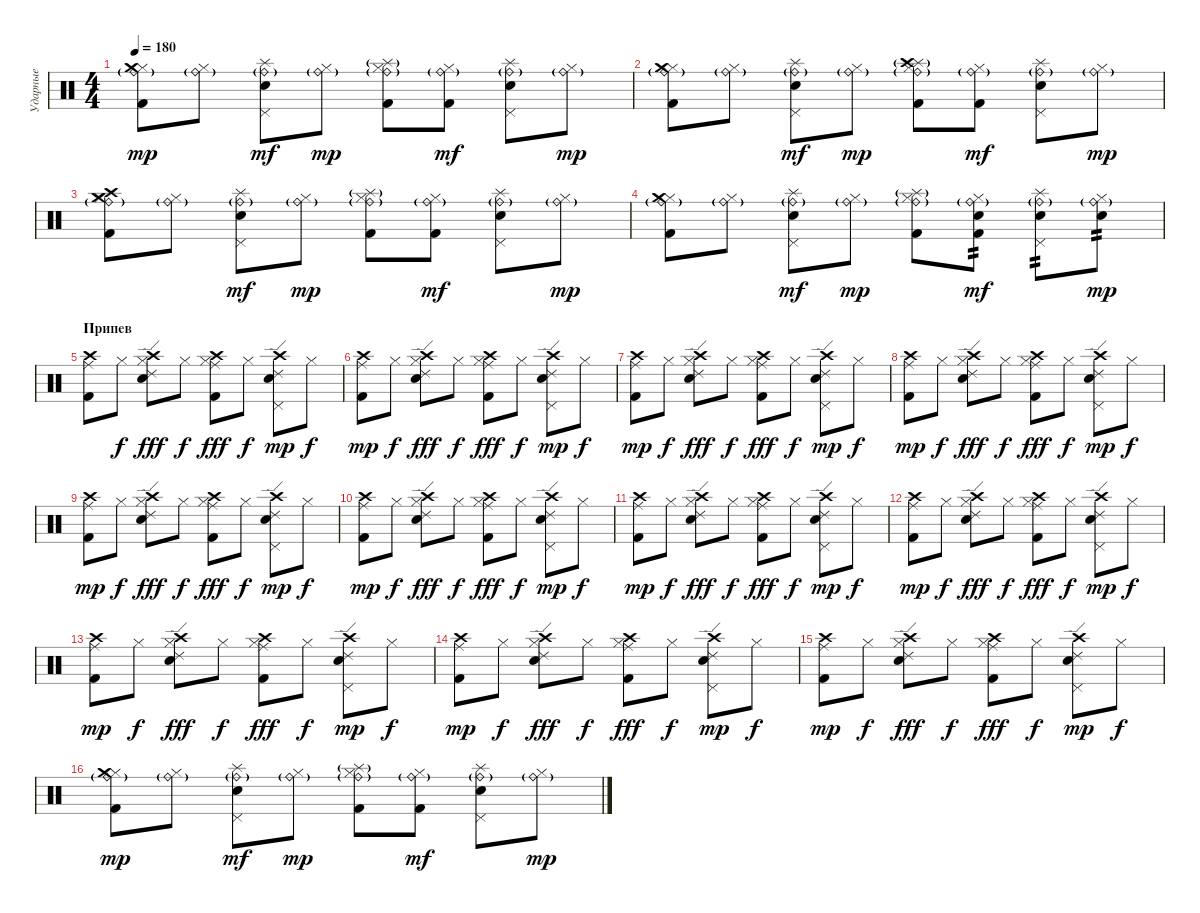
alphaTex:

\track ("Ударные" "Ударные") {instrument percussion}
\staff {score}
\articulation defaults
\ts (4 4)
\tempo 180
\clef neutral
\ks c
("Ride (bell)"{g} "Hi-Hat (closed)" "Kick (hit) 2" "Crash medium (hit)").8{dy mp} ("Ride (bell)"{g} "Hi-Hat (closed)").8 ("Ride (bell)"{g} "Snare (hit) 2" "Pedal Hi-Hat (hit)" "Splash (hit)").8{dy mf} ("Ride (bell)"{g} "Hi-Hat (closed)").8{dy mp} ("Ride (bell)"{g} "Hi-Hat (closed)" "Kick (hit) 2" "Splash (hit)"{g}).8 ("Ride (bell)"{g} "Hi-Hat (closed)" "Kick (hit) 2").8{dy mf} ("Ride (bell)"{g} "Pedal Hi-Hat (hit)" "Snare (hit) 2" "Splash (hit)").8 ("Ride (bell)"{g} "Hi-Hat (closed)").8{dy mp} |
("Ride (bell)"{g} "Hi-Hat (closed)" "Kick (hit) 2" "Crash medium (hit)").8 ("Ride (bell)"{g} "Hi-Hat (closed)").8 ("Ride (bell)"{g} "Snare (hit) 2" "Pedal Hi-Hat (hit)" "Splash (hit)").8{dy mf} ("Ride (bell)"{g} "Hi-Hat (closed)").8{dy mp} ("Ride (bell)"{g} "Hi-Hat (closed)" "Kick (hit) 2" "Splash (hit)"{g} "Crash high (hit)").8 ("Ride (bell)"{g} "Hi-Hat (closed)" "Kick (hit) 2").8{dy mf} ("Ride (bell)"{g} "Pedal Hi-Hat (hit)" "Snare (hit) 2" "Splash (hit)").8 ("Ride (bell)"{g} "Hi-Hat (closed)").8{dy mp} |
("Ride (bell)"{g} "Hi-Hat (closed)" "Kick (hit) 2" "Crash medium (hit)" "Crash high (hit)").8 ("Ride (bell)"{g} "Hi-Hat (closed)").8 ("Ride (bell)"{g} "Snare (hit) 2" "Pedal Hi-Hat (hit)" "Splash (hit)").8{dy mf} ("Ride (bell)"{g} "Hi-Hat (closed)").8{dy mp} ("Ride (bell)"{g} "Hi-Hat (closed)" "Kick (hit) 2" "Splash (hit)"{g}).8 ("Ride (bell)"{g} "Hi-Hat (closed)" "Kick (hit) 2").8{dy mf} ("Ride (bell)"{g} "Pedal Hi-Hat (hit)" "Snare (hit) 2" "Splash (hit)").8 ("Ride (bell)"{g} "Hi-Hat (closed)").8{dy mp} |
("Ride (bell)"{g} "Hi-Hat (closed)" "Kick (hit) 2" "Crash medium (hit)").8 ("Ride (bell)"{g} "Hi-Hat (closed)").8 ("Ride (bell)"{g} "Snare (hit) 2" "Pedal Hi-Hat (hit)" "Splash (hit)").8{dy mf} ("Ride (bell)"{g} "Hi-Hat (closed)").8{dy mp} ("Ride (bell)"{g} "Hi-Hat (closed)" "Kick (hit) 2" "Splash (hit)"{g}).8 ("Ride (bell)"{g} "Hi-Hat (closed)" "Kick (hit) 2" "Electric Snare (hit)").8{tp 2 dy mf} ("Ride (bell)"{g} "Pedal Hi-Hat (hit)" "Snare (hit) 2" "Splash (hit)").8{tp 2} ("Ride (bell)"{g} "Hi-Hat (closed)" "Snare (hit) 2").8{tp 2 dy mp} |
\section ("" "Припев")
("Crash high (hit)" "Kick (hit) 2" "Ride (middle)").8 "Hi-Hat (closed)".8{dy f} ("Crash high (hit)" "Hi-Hat (closed)" "Snare (hit) 2" "Ride (edge) 2").8{dy fff} "Hi-Hat (closed)".8{dy f} ("Kick (hit) 2" "Crash high (hit)" "Hi-Hat (closed)" "Ride (middle)").8{dy fff} "Hi-Hat (closed)".8{dy f} ("Pedal Hi-Hat (hit)" "Snare (hit) 2" "Crash high (hit)" "Ride (edge) 2").8{dy mp} "Hi-Hat (closed)".8{dy f} |
("Crash high (hit)" "Kick (hit) 2" "Ride (middle)").8{dy mp} "Hi-Hat (closed)".8{dy f} ("Crash high (hit)" "Hi-Hat (closed)" "Snare (hit) 2" "Ride (edge) 2").8{dy fff} "Hi-Hat (closed)".8{dy f} ("Kick (hit) 2" "Crash high (hit)" "Hi-Hat (closed)" "Ride (middle)").8{dy fff} "Hi-Hat (closed)".8{dy f} ("Pedal Hi-Hat (hit)" "Snare (hit) 2" "Crash high (hit)" "Ride (edge) 2").8{dy mp} "Hi-Hat (closed)".8{dy f} |
("Crash high (hit)" "Kick (hit) 2" "Ride (middle)").8{dy mp} "Hi-Hat (closed)".8{dy f} ("Crash high (hit)" "Hi-Hat (closed)" "Snare (hit) 2" "Ride (edge) 2").8{dy fff} "Hi-Hat (closed)".8{dy f} ("Kick (hit) 2" "Crash high (hit)" "Hi-Hat (closed)" "Ride (middle)").8{dy fff} "Hi-Hat (closed)".8{dy f} ("Pedal Hi-Hat (hit)" "Snare (hit) 2" "Crash high (hit)" "Ride (edge) 2").8{dy mp} "Hi-Hat (closed)".8{dy f} |
("Crash high (hit)" "Kick (hit) 2" "Ride (middle)").8{dy mp} "Hi-Hat (closed)".8{dy f} ("Crash high (hit)" "Hi-Hat (closed)" "Snare (hit) 2" "Ride (edge) 2").8{dy fff} "Hi-Hat (closed)".8{dy f} ("Kick (hit) 2" "Crash high (hit)" "Hi-Hat (closed)" "Ride (middle)").8{dy fff} "Hi-Hat (closed)".8{dy f} ("Pedal Hi-Hat (hit)" "Snare (hit) 2" "Crash high (hit)" "Ride (edge) 2").8{dy mp} "Hi-Hat (closed)".8{dy f} |
("Crash high (hit)" "Kick (hit) 2" "Ride (middle)").8{dy mp} "Hi-Hat (closed)".8{dy f} ("Crash high (hit)" "Hi-Hat (closed)" "Snare (hit) 2" "Ride (edge) 2").8{dy fff} "Hi-Hat (closed)".8{dy f} ("Kick (hit) 2" "Crash high (hit)" "Hi-Hat (closed)" "Ride (middle)").8{dy fff} "Hi-Hat (closed)".8{dy f} ("Pedal Hi-Hat (hit)" "Snare (hit) 2" "Crash high (hit)" "Ride (edge) 2").8{dy mp} "Hi-Hat (closed)".8{dy f} |
("Crash high (hit)" "Kick (hit) 2" "Ride (middle)").8{dy mp} "Hi-Hat (closed)".8{dy f} ("Crash high (hit)" "Hi-Hat (closed)" "Snare (hit) 2" "Ride (edge) 2").8{dy fff} "Hi-Hat (closed)".8{dy f} ("Kick (hit) 2" "Crash high (hit)" "Hi-Hat (closed)" "Ride (middle)").8{dy fff} "Hi-Hat (closed)".8{dy f} ("Pedal Hi-Hat (hit)" "Snare (hit) 2" "Crash high (hit)" "Ride (edge) 2").8{dy mp} "Hi-Hat (closed)".8{dy f} |
("Crash high (hit)" "Kick (hit) 2" "Ride (middle)").8{dy mp} "Hi-Hat (closed)".8{dy f} ("Crash high (hit)" "Hi-Hat (closed)" "Snare (hit) 2" "Ride (edge) 2").8{dy fff} "Hi-Hat (closed)".8{dy f} ("Kick (hit) 2" "Crash high (hit)" "Hi-Hat (closed)" "Ride (middle)").8{dy fff} "Hi-Hat (closed)".8{dy f} ("Pedal Hi-Hat (hit)" "Snare (hit) 2" "Crash high (hit)" "Ride (edge) 2").8{dy mp} "Hi-Hat (closed)".8{dy f} |
("Crash high (hit)" "Kick (hit) 2" "Ride (middle)").8{dy mp} "Hi-Hat (closed)".8{dy f} ("Crash high (hit)" "Hi-Hat (closed)" "Snare (hit) 2" "Ride (edge) 2").8{dy fff} "Hi-Hat (closed)".8{dy f} ("Kick (hit) 2" "Crash high (hit)" "Hi-Hat (closed)" "Ride (middle)").8{dy fff} "Hi-Hat (closed)".8{dy f} ("Pedal Hi-Hat (hit)" "Snare (hit) 2" "Crash high (hit)" "Ride (edge) 2").8{dy mp} "Hi-Hat (closed)".8{dy f} |
("Crash high (hit)" "Kick (hit) 2" "Ride (middle)").8{dy mp} "Hi-Hat (closed)".8{dy f} ("Crash high (hit)" "Hi-Hat (closed)" "Snare (hit) 2" "Ride (edge) 2").8{dy fff} "Hi-Hat (closed)".8{dy f} ("Kick (hit) 2" "Crash high (hit)" "Hi-Hat (closed)" "Ride (middle)").8{dy fff} "Hi-Hat (closed)".8{dy f} ("Pedal Hi-Hat (hit)" "Snare (hit) 2" "Crash high (hit)" "Ride (edge) 2").8{dy mp} "Hi-Hat (closed)".8{dy f} |
("Crash high (hit)" "Kick (hit) 2" "Ride (middle)").8{dy mp} "Hi-Hat (closed)".8{dy f} ("Crash high (hit)" "Hi-Hat (closed)" "Snare (hit) 2" "Ride (edge) 2").8{dy fff} "Hi-Hat (closed)".8{dy f} ("Kick (hit) 2" "Crash high (hit)" "Hi-Hat (closed)" "Ride (middle)").8{dy fff} "Hi-Hat (closed)".8{dy f} ("Pedal Hi-Hat (hit)" "Snare (hit) 2" "Crash high (hit)" "Ride (edge) 2").8{dy mp} "Hi-Hat (closed)".8{dy f} |
("Crash high (hit)" "Kick (hit) 2" "Ride (middle)").8{dy mp} "Hi-Hat (closed)".8{dy f} ("Crash high (hit)" "Hi-Hat (closed)" "Snare (hit) 2" "Ride (edge) 2").8{dy fff} "Hi-Hat (closed)".8{dy f} ("Kick (hit) 2" "Crash high (hit)" "Hi-Hat (closed)" "Ride (middle)").8{dy fff} "Hi-Hat (closed)".8{dy f} ("Pedal Hi-Hat (hit)" "Snare (hit) 2" "Crash high (hit)" "Ride (edge) 2").8{dy mp} "Hi-Hat (closed)".8{dy f} |
("Ride (bell)"{g} "Hi-Hat (closed)" "Kick (hit) 2" "Crash medium (hit)").8{dy mp} ("Ride (bell)"{g} "Hi-Hat (closed)").8 ("Ride (bell)"{g} "Snare (hit) 2" "Pedal Hi-Hat (hit)" "Splash (hit)").8{dy mf} ("Ride (bell)"{g} "Hi-Hat (closed)").8{dy mp} ("Ride (bell)"{g} "Hi-Hat (closed)" "Kick (hit) 2" "Splash (hit)"{g}).8 ("Ride (bell)"{g} "Hi-Hat (closed)" "Kick (hit) 2").8{dy mf} ("Ride (bell)"{g} "Pedal Hi-Hat (hit)" "Snare (hit) 2" "Splash (hit)").8 ("Ride (bell)"{g} "Hi-Hat (closed)").8{dy mp}
